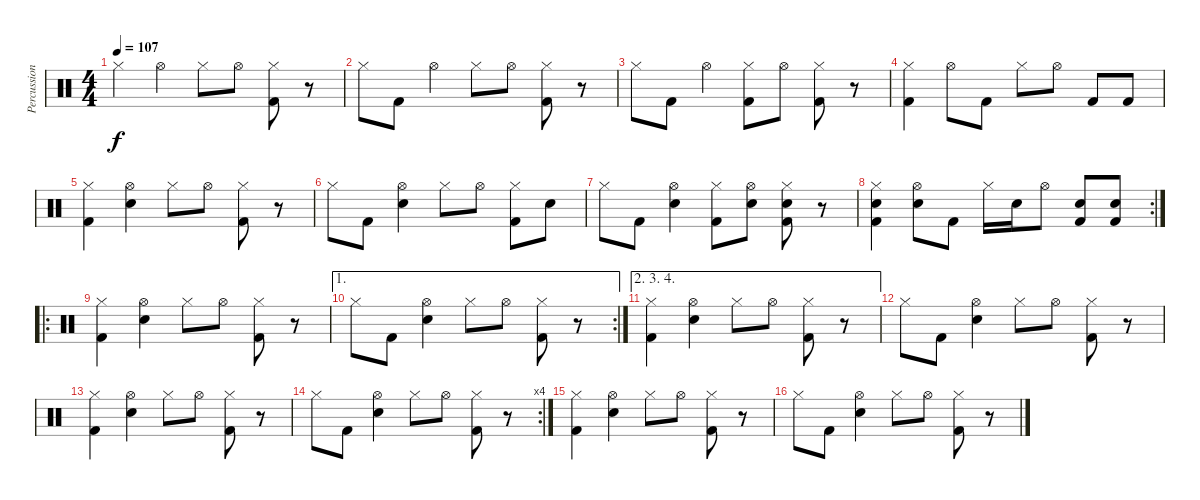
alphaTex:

\track ("Percussion" "Percussion") {instrument percussion}
\staff {score}
\articulation defaults
\ts (4 4)
\tempo 107
\clef neutral
\ks c "Hi-Hat (closed)".4{dy f} "Hi-Hat (open)".4 "Hi-Hat (closed)".8 "Hi-Hat (open)".8
("Hi-Hat (closed)" "Kick (hit) 2").8 r.8 |
"Hi-Hat (closed)".8 "Kick (hit) 2".8 "Hi-Hat (open)".4 "Hi-Hat (closed)".8 "Hi-Hat (open)".8 ("Hi-Hat (closed)" "Kick (hit) 2").8 r.8 |
"Hi-Hat (closed)".8 "Kick (hit) 2".8 "Hi-Hat (open)".4 ("Hi-Hat (closed)" "Kick (hit) 2").8 "Hi-Hat (open)".8 ("Hi-Hat (closed)" "Kick (hit) 2").8 r.8 |
("Hi-Hat (closed)" "Kick (hit) 2").4 "Hi-Hat (open)".8 "Kick (hit) 2".8 "Hi-Hat (closed)".8 "Hi-Hat (open)".8 "Kick (hit) 2".8 "Kick (hit) 2".8 |
("Hi-Hat (closed)" "Kick (hit) 2").4 ("Hi-Hat (open)" "Snare (hit) 2").4 "Hi-Hat (closed)".8 "Hi-Hat (open)".8 ("Hi-Hat (closed)" "Kick (hit) 2").8 r.8 |
"Hi-Hat (closed)".8 "Kick (hit) 2".8 ("Hi-Hat (open)" "Snare (hit) 2").4 "Hi-Hat (closed)".8 "Hi-Hat (open)".8 ("Hi-Hat (closed)" "Kick (hit) 2").8 "Snare (hit) 2".8 |
"Hi-Hat (closed)".8 "Kick (hit) 2".8 ("Hi-Hat (open)" "Snare (hit) 2").4 ("Hi-Hat (closed)" "Kick (hit) 2").8 ("Hi-Hat (open)" "Snare (hit) 2").8 ("Hi-Hat (closed)" "Snare (hit) 2" "Kick (hit) 2").8 r.8 |
\rc 2
("Hi-Hat (closed)" "Snare (hit) 2" "Kick (hit) 2").4 ("Hi-Hat (open)" "Snare (hit) 2").8 "Kick (hit) 2".8 "Hi-Hat (closed)".16 "Snare (hit) 2".16 "Hi-Hat (open)".8 ("Snare (hit) 2" "Kick (hit) 2").8 ("Snare (hit) 2" "Kick (hit) 2").8 |
\ro
("Hi-Hat (closed)" "Kick (hit) 2").4 ("Hi-Hat (open)" "Snare (hit) 2").4 "Hi-Hat (closed)".8 "Hi-Hat (open)".8 ("Hi-Hat (closed)" "Kick (hit) 2").8 r.8 |
\ae 1
\rc 2 "Hi-Hat (closed)".8 "Kick (hit) 2".8
("Hi-Hat (open)" "Snare (hit) 2").4 "Hi-Hat (closed)".8 "Hi-Hat (open)".8 ("Hi-Hat (closed)" "Kick (hit) 2").8 r.8 |
\ae (2 3 4)
("Hi-Hat (closed)" "Kick (hit) 2").4 ("Hi-Hat (open)" "Snare (hit) 2").4 "Hi-Hat (closed)".8 "Hi-Hat (open)".8 ("Hi-Hat (closed)" "Kick (hit) 2").8 r.8 |
"Hi-Hat (closed)".8 "Kick (hit) 2".8 ("Hi-Hat (open)" "Snare (hit) 2").4 "Hi-Hat (closed)".8 "Hi-Hat (open)".8 ("Hi-Hat (closed)" "Kick (hit) 2").8 r.8 |
("Hi-Hat (closed)" "Kick (hit) 2").4 ("Hi-Hat (open)" "Snare (hit) 2").4 "Hi-Hat (closed)".8 "Hi-Hat (open)".8 ("Hi-Hat (closed)" "Kick (hit) 2").8 r.8 |
\rc 4 "Hi-Hat (closed)".8 "Kick (hit) 2".8
("Hi-Hat (open)" "Snare (hit) 2").4 "Hi-Hat (closed)".8 "Hi-Hat (open)".8 ("Hi-Hat (closed)" "Kick (hit) 2").8 r.8 |
("Hi-Hat (closed)" "Kick (hit) 2").4 ("Hi-Hat (open)" "Snare (hit) 2").4 "Hi-Hat (closed)".8 "Hi-Hat (open)".8 ("Hi-Hat (closed)" "Kick (hit) 2").8 r.8 |
"Hi-Hat (closed)".8 "Kick (hit) 2".8 ("Hi-Hat (open)" "Snare (hit) 2").4 "Hi-Hat (closed)".8 "Hi-Hat (open)".8 ("Hi-Hat (closed)" "Kick (hit) 2").8 r.8
